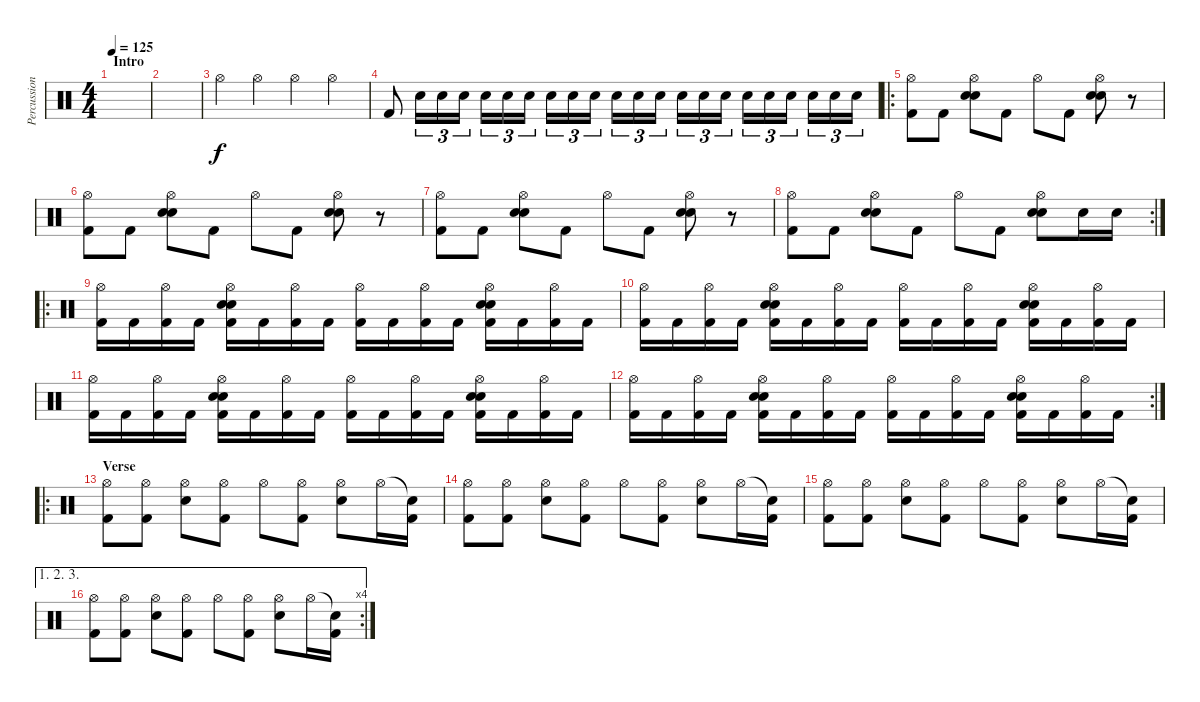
\track ("Percussion" "Percussion") {instrument percussion}
\staff {score}
\articulation defaults
\ts (4 4)
\section ("" "Intro")
\tempo 125
\clef neutral
\ks c
|
|
"Hi-Hat (open)".4 "Hi-Hat (open)".4 "Hi-Hat (open)".4 "Hi-Hat (open)".4 |
"Kick (hit) 2".8 "Electric Snare (hit)".16{tu (3 2)} "Electric Snare (hit)".16{tu (3 2)} "Electric Snare (hit)".16{tu (3 2)} "Electric Snare (hit)".16{tu (3 2)} "Electric Snare (hit)".16{tu (3 2)} "Electric Snare (hit)".16{tu (3 2)} "Electric Snare (hit)".16{tu (3 2)} "Electric Snare (hit)".16{tu (3 2)} "Electric Snare (hit)".16{tu (3 2)} "Electric Snare (hit)".16{tu (3 2)} "Electric Snare (hit)".16{tu (3 2)} "Electric Snare (hit)".16{tu (3 2)} "Electric Snare (hit)".16{tu (3 2)} "Electric Snare (hit)".16{tu (3 2)} "Electric Snare (hit)".16{tu (3 2)} "Electric Snare (hit)".16{tu (3 2)} "Electric Snare (hit)".16{tu (3 2)} "Electric Snare (hit)".16{tu (3 2)} "Electric Snare (hit)".16{tu (3 2)} "Electric Snare (hit)".16{tu (3 2)} "Electric Snare (hit)".16{tu (3 2)} |
\ro
("Hi-Hat (open)" "Kick (hit) 2").8 "Kick (hit) 2".8 ("Hi-Hat (open)" "Snare (hit) 2" "Snare (hit) 2").8 "Kick (hit) 2".8 "Hi-Hat (open)".8 "Kick (hit) 2".8 ("Hi-Hat (open)" "Snare (hit) 2" "Snare (hit) 2").8 r.8 |
("Hi-Hat (open)" "Kick (hit) 2").8 "Kick (hit) 2".8 ("Hi-Hat (open)" "Snare (hit) 2" "Snare (hit) 2").8 "Kick (hit) 2".8 "Hi-Hat (open)".8 "Kick (hit) 2".8 ("Hi-Hat (open)" "Snare (hit) 2" "Snare (hit) 2").8 r.8 |
("Hi-Hat (open)" "Kick (hit) 2").8 "Kick (hit) 2".8 ("Hi-Hat (open)" "Snare (hit) 2" "Snare (hit) 2").8 "Kick (hit) 2".8 "Hi-Hat (open)".8 "Kick (hit) 2".8 ("Hi-Hat (open)" "Snare (hit) 2" "Snare (hit) 2").8 r.8 |
\rc 2
("Hi-Hat (open)" "Kick (hit) 2").8 "Kick (hit) 2".8 ("Hi-Hat (open)" "Snare (hit) 2" "Snare (hit) 2").8 "Kick (hit) 2".8 "Hi-Hat (open)".8 "Kick (hit) 2".8 ("Hi-Hat (open)" "Snare (hit) 2" "Snare (hit) 2").8 "Snare (hit) 2".16 "Snare (hit) 2".16 |
\ro
("Hi-Hat (open)" "Kick (hit) 2").16 "Kick (hit) 2".16 ("Hi-Hat (open)" "Kick (hit) 2").16 "Kick (hit) 2".16 ("Hi-Hat (open)" "Snare (hit) 2" "Electric Snare (hit)" "Kick (hit) 2").16 "Kick (hit) 2".16 ("Hi-Hat (open)" "Kick (hit) 2").16 "Kick (hit) 2".16 ("Hi-Hat (open)" "Kick (hit) 2").16 "Kick (hit) 2".16 ("Hi-Hat (open)" "Kick (hit) 2").16 "Kick (hit) 2".16 ("Hi-Hat (open)" "Snare (hit) 2" "Electric Snare (hit)" "Kick (hit) 2").16 "Kick (hit) 2".16 ("Hi-Hat (open)" "Kick (hit) 2").16 "Kick (hit) 2".16 |
("Hi-Hat (open)" "Kick (hit) 2").16 "Kick (hit) 2".16 ("Hi-Hat (open)" "Kick (hit) 2").16 "Kick (hit) 2".16 ("Hi-Hat (open)" "Snare (hit) 2" "Electric Snare (hit)" "Kick (hit) 2").16 "Kick (hit) 2".16 ("Hi-Hat (open)" "Kick (hit) 2").16 "Kick (hit) 2".16 ("Hi-Hat (open)" "Kick (hit) 2").16 "Kick (hit) 2".16 ("Hi-Hat (open)" "Kick (hit) 2").16 "Kick (hit) 2".16 ("Hi-Hat (open)" "Snare (hit) 2" "Electric Snare (hit)" "Kick (hit) 2").16 "Kick (hit) 2".16 ("Hi-Hat (open)" "Kick (hit) 2").16 "Kick (hit) 2".16 |
("Hi-Hat (open)" "Kick (hit) 2").16 "Kick (hit) 2".16 ("Hi-Hat (open)" "Kick (hit) 2").16 "Kick (hit) 2".16 ("Hi-Hat (open)" "Snare (hit) 2" "Electric Snare (hit)" "Kick (hit) 2").16 "Kick (hit) 2".16 ("Hi-Hat (open)" "Kick (hit) 2").16 "Kick (hit) 2".16 ("Hi-Hat (open)" "Kick (hit) 2").16 "Kick (hit) 2".16 ("Hi-Hat (open)" "Kick (hit) 2").16 "Kick (hit) 2".16 ("Hi-Hat (open)" "Snare (hit) 2" "Electric Snare (hit)" "Kick (hit) 2").16 "Kick (hit) 2".16 ("Hi-Hat (open)" "Kick (hit) 2").16 "Kick (hit) 2".16 |
\rc 2
("Hi-Hat (open)" "Kick (hit) 2").16 "Kick (hit) 2".16 ("Hi-Hat (open)" "Kick (hit) 2").16 "Kick (hit) 2".16 ("Hi-Hat (open)" "Snare (hit) 2" "Electric Snare (hit)" "Kick (hit) 2").16 "Kick (hit) 2".16 ("Hi-Hat (open)" "Kick (hit) 2").16 "Kick (hit) 2".16 ("Hi-Hat (open)" "Kick (hit) 2").16 "Kick (hit) 2".16 ("Hi-Hat (open)" "Kick (hit) 2").16 "Kick (hit) 2".16 ("Hi-Hat (open)" "Snare (hit) 2" "Electric Snare (hit)" "Kick (hit) 2").16 "Kick (hit) 2".16 ("Hi-Hat (open)" "Kick (hit) 2").16 "Kick (hit) 2".16 |
\ro
\section ("" "Verse")
("Hi-Hat (open)" "Kick (hit) 2").8 ("Hi-Hat (open)" "Kick (hit) 2").8 ("Hi-Hat (open)" "Electric Snare (hit)").8 ("Hi-Hat (open)" "Kick (hit) 2").8 "Hi-Hat (open)".8 ("Hi-Hat (open)" "Kick (hit) 2").8 ("Hi-Hat (open)" "Electric Snare (hit)").8 "Hi-Hat (open)".16 ("Snare (hit)"{t} "Kick (hit) 2").16 |
("Hi-Hat (open)" "Kick (hit) 2").8 ("Hi-Hat (open)" "Kick (hit) 2").8 ("Hi-Hat (open)" "Electric Snare (hit)").8 ("Hi-Hat (open)" "Kick (hit) 2").8 "Hi-Hat (open)".8 ("Hi-Hat (open)" "Kick (hit) 2").8 ("Hi-Hat (open)" "Electric Snare (hit)").8 "Hi-Hat (open)".16 ("Snare (hit)"{t} "Kick (hit) 2").16 |
("Hi-Hat (open)" "Kick (hit) 2").8 ("Hi-Hat (open)" "Kick (hit) 2").8 ("Hi-Hat (open)" "Electric Snare (hit)").8 ("Hi-Hat (open)" "Kick (hit) 2").8 "Hi-Hat (open)".8 ("Hi-Hat (open)" "Kick (hit) 2").8 ("Hi-Hat (open)" "Electric Snare (hit)").8 "Hi-Hat (open)".16 ("Snare (hit)"{t} "Kick (hit) 2").16 |
\ae (1 2 3)
\rc 4
("Hi-Hat (open)" "Kick (hit) 2").8 ("Hi-Hat (open)" "Kick (hit) 2").8 ("Hi-Hat (open)" "Electric Snare (hit)").8 ("Hi-Hat (open)" "Kick (hit) 2").8 "Hi-Hat (open)".8 ("Hi-Hat (open)" "Kick (hit) 2").8 ("Hi-Hat (open)" "Electric Snare (hit)").8 "Hi-Hat (open)".16 ("Snare (hit)"{t} "Kick (hit) 2").16
